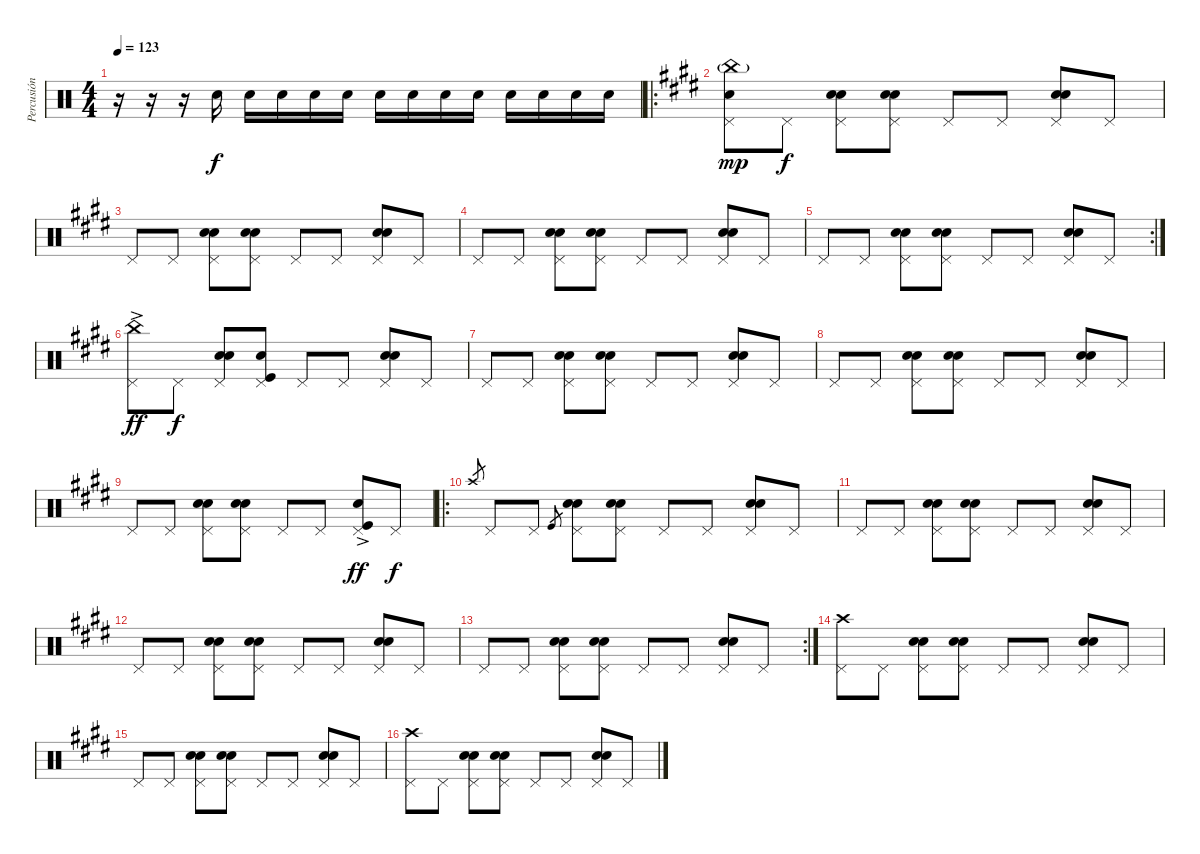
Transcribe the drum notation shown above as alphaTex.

\track ("Percusión" "Percusión") {instrument percussion}
\staff {score}
\articulation defaults
\ts (4 4)
\tempo 123
\clef neutral
\ks c
r.16{dy f} r.16 r.16 "Electric Snare (hit)".16 "Electric Snare (hit)".16 "Electric Snare (hit)".16 "Electric Snare (hit)".16 "Electric Snare (hit)".16 "Electric Snare (hit)".16 "Electric Snare (hit)".16 "Electric Snare (hit)".16 "Electric Snare (hit)".16 "Electric Snare (hit)".16 "Electric Snare (hit)".16 "Electric Snare (hit)".16 "Electric Snare (hit)".16 |
\ro
\ks e
("Pedal Hi-Hat (hit)" "Electric Snare (hit)" "China (hit)"{g}).8{dy mp} "Pedal Hi-Hat (hit)".8{dy f} ("Pedal Hi-Hat (hit)" "Snare (hit) 2" "Electric Snare (hit)").8 ("Pedal Hi-Hat (hit)" "Snare (hit) 2" "Electric Snare (hit)").8 "Pedal Hi-Hat (hit)".8 "Pedal Hi-Hat (hit)".8 ("Pedal Hi-Hat (hit)" "Electric Snare (hit)" "Snare (hit) 2").8 "Pedal Hi-Hat (hit)".8 |
\ks c#minor "Pedal Hi-Hat (hit)".8 "Pedal Hi-Hat (hit)".8
("Pedal Hi-Hat (hit)" "Snare (hit) 2" "Electric Snare (hit)").8 ("Pedal Hi-Hat (hit)" "Snare (hit) 2" "Electric Snare (hit)").8 "Pedal Hi-Hat (hit)".8 "Pedal Hi-Hat (hit)".8 ("Pedal Hi-Hat (hit)" "Snare (hit) 2" "Electric Snare (hit)").8 "Pedal Hi-Hat (hit)".8 |
"Pedal Hi-Hat (hit)".8 "Pedal Hi-Hat (hit)".8 ("Pedal Hi-Hat (hit)" "Snare (hit) 2" "Electric Snare (hit)").8 ("Pedal Hi-Hat (hit)" "Snare (hit) 2" "Electric Snare (hit)").8 "Pedal Hi-Hat (hit)".8 "Pedal Hi-Hat (hit)".8 ("Pedal Hi-Hat (hit)" "Snare (hit) 2" "Electric Snare (hit)").8 "Pedal Hi-Hat (hit)".8 |
\rc 2 "Pedal Hi-Hat (hit)".8 "Pedal Hi-Hat (hit)".8
("Pedal Hi-Hat (hit)" "Snare (hit) 2" "Electric Snare (hit)").8 ("Pedal Hi-Hat (hit)" "Snare (hit) 2" "Electric Snare (hit)").8 "Pedal Hi-Hat (hit)".8 "Pedal Hi-Hat (hit)".8 ("Pedal Hi-Hat (hit)" "Snare (hit) 2" "Electric Snare (hit)").8 "Pedal Hi-Hat (hit)".8 |
\ks e
("Pedal Hi-Hat (hit)" "China (hit)"{ac}).8{dy ff} "Pedal Hi-Hat (hit)".8{dy f} ("Pedal Hi-Hat (hit)" "Snare (hit) 2" "Electric Snare (hit)").8 ("Pedal Hi-Hat (hit)" "Snare (hit) 2" "Kick (hit)").8 "Pedal Hi-Hat (hit)".8 "Pedal Hi-Hat (hit)".8 ("Pedal Hi-Hat (hit)" "Snare (hit) 2" "Electric Snare (hit)").8 "Pedal Hi-Hat (hit)".8 |
\ks c#minor "Pedal Hi-Hat (hit)".8 "Pedal Hi-Hat (hit)".8
("Pedal Hi-Hat (hit)" "Snare (hit) 2" "Electric Snare (hit)").8 ("Pedal Hi-Hat (hit)" "Electric Snare (hit)" "Snare (hit) 2").8 "Pedal Hi-Hat (hit)".8 "Pedal Hi-Hat (hit)".8 ("Pedal Hi-Hat (hit)" "Snare (hit) 2" "Electric Snare (hit)").8 "Pedal Hi-Hat (hit)".8 |
"Pedal Hi-Hat (hit)".8 "Pedal Hi-Hat (hit)".8 ("Pedal Hi-Hat (hit)" "Electric Snare (hit)" "Snare (hit) 2").8 ("Pedal Hi-Hat (hit)" "Electric Snare (hit)" "Snare (hit) 2").8 "Pedal Hi-Hat (hit)".8 "Pedal Hi-Hat (hit)".8 ("Pedal Hi-Hat (hit)" "Electric Snare (hit)" "Snare (hit) 2").8 "Pedal Hi-Hat (hit)".8 |
"Pedal Hi-Hat (hit)".8 "Pedal Hi-Hat (hit)".8 ("Pedal Hi-Hat (hit)" "Electric Snare (hit)" "Snare (hit) 2").8 ("Pedal Hi-Hat (hit)" "Electric Snare (hit)" "Snare (hit) 2").8 "Pedal Hi-Hat (hit)".8 "Pedal Hi-Hat (hit)".8 ("Pedal Hi-Hat (hit)" "Snare (hit) 2" "Kick (hit)"{ac}).8{dy ff} "Pedal Hi-Hat (hit)".8{dy f} |
\ro
\ks e "Crash high (hit)".8{gr} "Pedal Hi-Hat (hit)".8 "Pedal Hi-Hat (hit)".8 "Kick (hit)".8{gr}
("Pedal Hi-Hat (hit)" "Snare (hit) 2" "Electric Snare (hit)").8 ("Pedal Hi-Hat (hit)" "Snare (hit) 2" "Electric Snare (hit)").8 "Pedal Hi-Hat (hit)".8 "Pedal Hi-Hat (hit)".8 ("Pedal Hi-Hat (hit)" "Electric Snare (hit)" "Snare (hit) 2").8 "Pedal Hi-Hat (hit)".8 |
\ks c#minor "Pedal Hi-Hat (hit)".8 "Pedal Hi-Hat (hit)".8
("Pedal Hi-Hat (hit)" "Snare (hit) 2" "Electric Snare (hit)").8 ("Pedal Hi-Hat (hit)" "Snare (hit) 2" "Electric Snare (hit)").8 "Pedal Hi-Hat (hit)".8 "Pedal Hi-Hat (hit)".8 ("Pedal Hi-Hat (hit)" "Electric Snare (hit)" "Snare (hit) 2").8 "Pedal Hi-Hat (hit)".8 |
"Pedal Hi-Hat (hit)".8 "Pedal Hi-Hat (hit)".8 ("Pedal Hi-Hat (hit)" "Snare (hit) 2" "Electric Snare (hit)").8 ("Pedal Hi-Hat (hit)" "Electric Snare (hit)" "Snare (hit) 2").8 "Pedal Hi-Hat (hit)".8 "Pedal Hi-Hat (hit)".8 ("Pedal Hi-Hat (hit)" "Snare (hit) 2" "Electric Snare (hit)").8 "Pedal Hi-Hat (hit)".8 |
\rc 2 "Pedal Hi-Hat (hit)".8 "Pedal Hi-Hat (hit)".8
("Pedal Hi-Hat (hit)" "Electric Snare (hit)" "Snare (hit) 2").8 ("Pedal Hi-Hat (hit)" "Snare (hit) 2" "Electric Snare (hit)").8 "Pedal Hi-Hat (hit)".8 "Pedal Hi-Hat (hit)".8 ("Pedal Hi-Hat (hit)" "Electric Snare (hit)" "Snare (hit) 2").8 "Pedal Hi-Hat (hit)".8 |
\ks e
("Pedal Hi-Hat (hit)" "Crash high (hit)").8 "Pedal Hi-Hat (hit)".8 ("Pedal Hi-Hat (hit)" "Snare (hit) 2" "Electric Snare (hit)").8 ("Pedal Hi-Hat (hit)" "Snare (hit) 2" "Electric Snare (hit)").8 "Pedal Hi-Hat (hit)".8 "Pedal Hi-Hat (hit)".8 ("Pedal Hi-Hat (hit)" "Electric Snare (hit)" "Snare (hit) 2").8 "Pedal Hi-Hat (hit)".8 |
"Pedal Hi-Hat (hit)".8 "Pedal Hi-Hat (hit)".8 ("Pedal Hi-Hat (hit)" "Snare (hit) 2" "Electric Snare (hit)").8 ("Pedal Hi-Hat (hit)" "Electric Snare (hit)" "Snare (hit) 2").8 "Pedal Hi-Hat (hit)".8 "Pedal Hi-Hat (hit)".8 ("Pedal Hi-Hat (hit)" "Snare (hit) 2" "Electric Snare (hit)").8 "Pedal Hi-Hat (hit)".8 |
("Pedal Hi-Hat (hit)" "Crash high (hit)").8 "Pedal Hi-Hat (hit)".8 ("Pedal Hi-Hat (hit)" "Electric Snare (hit)" "Snare (hit) 2").8 ("Pedal Hi-Hat (hit)" "Electric Snare (hit)" "Snare (hit) 2").8 "Pedal Hi-Hat (hit)".8 "Pedal Hi-Hat (hit)".8 ("Pedal Hi-Hat (hit)" "Electric Snare (hit)" "Snare (hit) 2").8 "Pedal Hi-Hat (hit)".8
